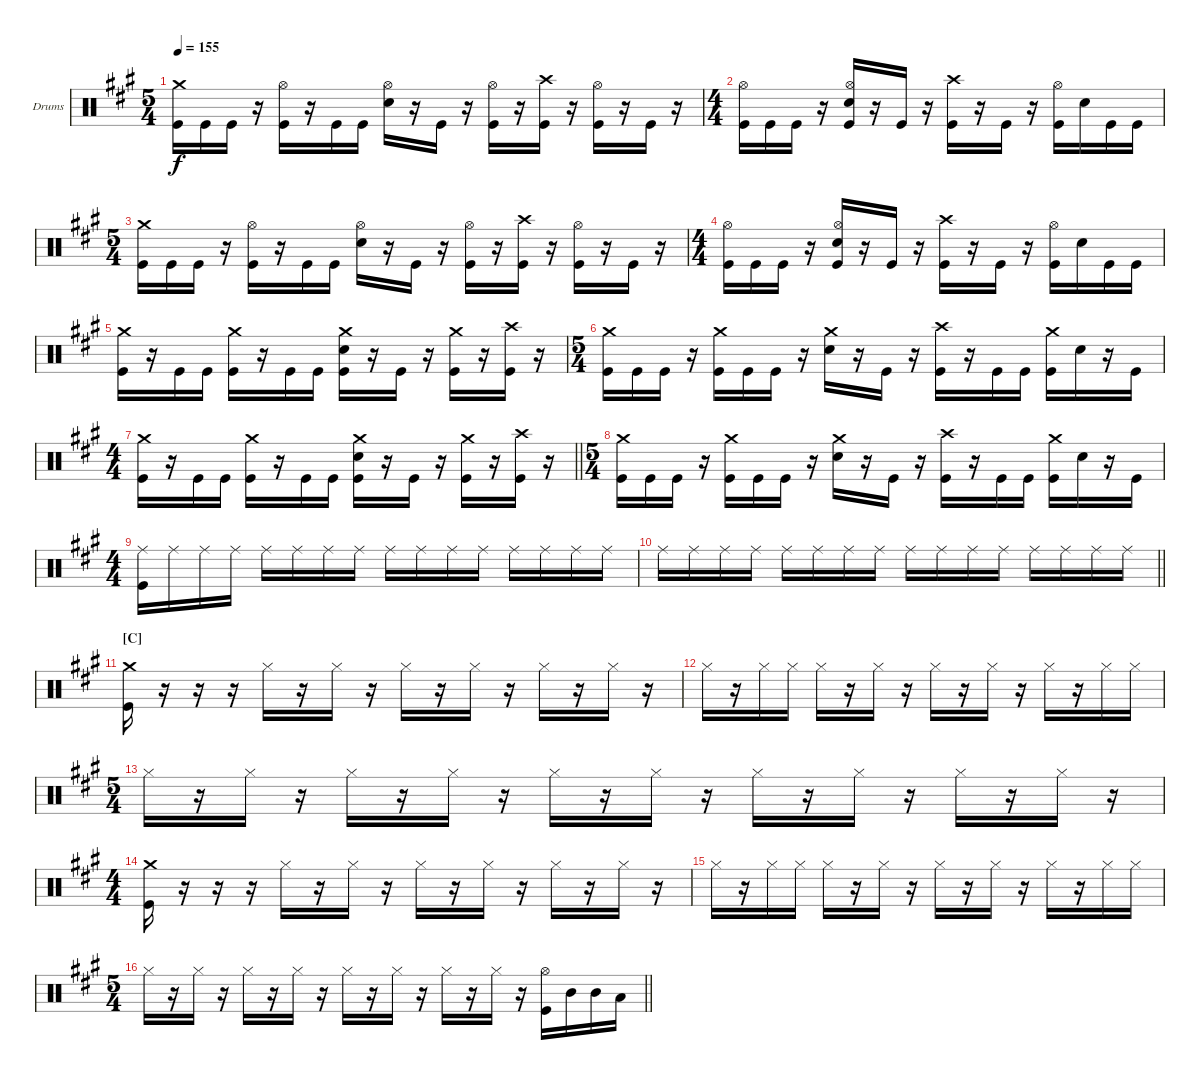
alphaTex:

\bracketExtendMode groupsimilarinstruments
\firstSystemTrackNameOrientation horizontal
\otherSystemsTrackNameOrientation horizontal
\track ("Drumkit" "Drums") {instrument percussion}
\staff {score}
\articulation defaults
\ts (5 4)
\beaming (8 2 2 2 2 2)
\tempo 155
\clef neutral
\ks a
("Crash medium (hit)" "Kick (hit)").16{dy f} "Kick (hit)".16 "Kick (hit)".16 r.16 ("Hi-Hat (open)" "Kick (hit)").16 r.16 "Kick (hit)".16 "Kick (hit)".16 ("Hi-Hat (open)" "Snare (hit) 2").16 r.16 "Kick (hit)".16 r.16 ("Hi-Hat (open)" "Kick (hit)").16 r.16 ("Crash high (hit)" "Kick (hit)").16 r.16 ("Hi-Hat (open)" "Kick (hit)").16 r.16 "Kick (hit)".16 r.16 |
\ts (4 4)
\beaming (8 2 2 2 2 2)
("Hi-Hat (open)" "Kick (hit)").16 "Kick (hit)".16 "Kick (hit)".16 r.16 ("Hi-Hat (open)" "Snare (hit) 2" "Kick (hit)").16 r.16 "Kick (hit)".16 r.16 ("Crash high (hit)" "Kick (hit)").16 r.16 "Kick (hit)".16 r.16 ("Hi-Hat (open)" "Kick (hit)").16 "Snare (hit) 2".16 "Kick (hit)".16 "Kick (hit)".16 |
\ts (5 4)
\beaming (8 2 2 2 2 2)
("Crash medium (hit)" "Kick (hit)").16 "Kick (hit)".16 "Kick (hit)".16 r.16 ("Hi-Hat (open)" "Kick (hit)").16 r.16 "Kick (hit)".16 "Kick (hit)".16 ("Hi-Hat (open)" "Snare (hit) 2").16 r.16 "Kick (hit)".16 r.16 ("Hi-Hat (open)" "Kick (hit)").16 r.16 ("Crash high (hit)" "Kick (hit)").16 r.16 ("Hi-Hat (open)" "Kick (hit)").16 r.16 "Kick (hit)".16 r.16 |
\ts (4 4)
\beaming (8 2 2 2 2 2)
("Hi-Hat (open)" "Kick (hit)").16 "Kick (hit)".16 "Kick (hit)".16 r.16 ("Hi-Hat (open)" "Snare (hit) 2" "Kick (hit)").16 r.16 "Kick (hit)".16 r.16 ("Crash high (hit)" "Kick (hit)").16 r.16 "Kick (hit)".16 r.16 ("Hi-Hat (open)" "Kick (hit)").16 "Snare (hit) 2".16 "Kick (hit)".16 "Kick (hit)".16 |
("Crash medium (hit)" "Kick (hit)").16 r.16 "Kick (hit)".16 "Kick (hit)".16 ("Crash medium (hit)" "Kick (hit)").16 r.16 "Kick (hit)".16 "Kick (hit)".16 ("Crash medium (hit)" "Snare (hit) 2" "Kick (hit)").16 r.16 "Kick (hit)".16 r.16 ("Crash medium (hit)" "Kick (hit)").16 r.16 ("Crash high (hit)" "Kick (hit)").16 r.16 |
\ts (5 4)
\beaming (8 2 2 2 2 2)
("Crash medium (hit)" "Kick (hit)").16 "Kick (hit)".16 "Kick (hit)".16 r.16 ("Crash medium (hit)" "Kick (hit)").16 "Kick (hit)".16 "Kick (hit)".16 r.16 ("Crash medium (hit)" "Snare (hit) 2").16 r.16 "Kick (hit)".16 r.16 ("Crash high (hit)" "Kick (hit)").16 r.16 "Kick (hit)".16 "Kick (hit)".16 ("Crash medium (hit)" "Kick (hit)").16 "Snare (hit) 2".16 r.16 "Kick (hit)".16 |
\ts (4 4)
\beaming (8 2 2 2 2 2)
\barLineRight lightlight
("Crash medium (hit)" "Kick (hit)").16 r.16 "Kick (hit)".16 "Kick (hit)".16 ("Crash medium (hit)" "Kick (hit)").16 r.16 "Kick (hit)".16 "Kick (hit)".16 ("Crash medium (hit)" "Snare (hit) 2" "Kick (hit)").16 r.16 "Kick (hit)".16 r.16 ("Crash medium (hit)" "Kick (hit)").16 r.16 ("Crash high (hit)" "Kick (hit)").16 r.16 |
\ts (5 4)
\beaming (8 2 2 2 2 2)
("Crash medium (hit)" "Kick (hit)").16 "Kick (hit)".16 "Kick (hit)".16 r.16 ("Crash medium (hit)" "Kick (hit)").16 "Kick (hit)".16 "Kick (hit)".16 r.16 ("Crash medium (hit)" "Snare (hit) 2").16 r.16 "Kick (hit)".16 r.16 ("Crash high (hit)" "Kick (hit)").16 r.16 "Kick (hit)".16 "Kick (hit)".16 ("Crash medium (hit)" "Kick (hit)").16 "Snare (hit) 2".16 r.16 "Kick (hit)".16 |
\ts (4 4)
\beaming (8 2 2 2 2 2)
("Ride (middle)" "Kick (hit)").16 "Ride (middle)".16 "Ride (middle)".16 "Ride (middle)".16 "Ride (middle)".16 "Ride (middle)".16 "Ride (middle)".16 "Ride (middle)".16 "Ride (middle)".16 "Ride (middle)".16 "Ride (middle)".16 "Ride (middle)".16 "Ride (middle)".16 "Ride (middle)".16 "Ride (middle)".16 "Ride (middle)".16 |
\barLineRight lightlight "Ride (middle)".16 "Ride (middle)".16 "Ride (middle)".16 "Ride (middle)".16 "Ride (middle)".16 "Ride (middle)".16 "Ride (middle)".16 "Ride (middle)".16 "Ride (middle)".16 "Ride (middle)".16 "Ride (middle)".16 "Ride (middle)".16 "Ride (middle)".16 "Ride (middle)".16 "Ride (middle)".16 "Ride (middle)".16
|
\section ("C" "")
("Crash medium (hit)" "Kick (hit)").16 r.16 r.16 r.16 "Hi-Hat (closed)".16 r.16 "Hi-Hat (closed)".16 r.16 "Hi-Hat (closed)".16 r.16 "Hi-Hat (closed)".16 r.16 "Hi-Hat (closed)".16 r.16 "Hi-Hat (closed)".16 r.16 |
"Hi-Hat (closed)".16 r.16 "Hi-Hat (closed)".16 "Hi-Hat (closed)".16 "Hi-Hat (closed)".16 r.16 "Hi-Hat (closed)".16 r.16 "Hi-Hat (closed)".16 r.16 "Hi-Hat (closed)".16 r.16 "Hi-Hat (closed)".16 r.16 "Hi-Hat (closed)".16 "Hi-Hat (closed)".16 |
\ts (5 4)
\beaming (8 2 2 2 2 2)
"Hi-Hat (closed)".16 r.16 "Hi-Hat (closed)".16 r.16 "Hi-Hat (closed)".16 r.16 "Hi-Hat (closed)".16 r.16 "Hi-Hat (closed)".16 r.16 "Hi-Hat (closed)".16 r.16 "Hi-Hat (closed)".16 r.16 "Hi-Hat (closed)".16 r.16 "Hi-Hat (closed)".16 r.16 "Hi-Hat (closed)".16 r.16 |
\ts (4 4)
\beaming (8 2 2 2 2 2)
("Crash medium (hit)" "Kick (hit)").16 r.16 r.16 r.16 "Hi-Hat (closed)".16 r.16 "Hi-Hat (closed)".16 r.16 "Hi-Hat (closed)".16 r.16 "Hi-Hat (closed)".16 r.16 "Hi-Hat (closed)".16 r.16 "Hi-Hat (closed)".16 r.16 |
"Hi-Hat (closed)".16 r.16 "Hi-Hat (closed)".16 "Hi-Hat (closed)".16 "Hi-Hat (closed)".16 r.16 "Hi-Hat (closed)".16 r.16 "Hi-Hat (closed)".16 r.16 "Hi-Hat (closed)".16 r.16 "Hi-Hat (closed)".16 r.16 "Hi-Hat (closed)".16 "Hi-Hat (closed)".16 |
\ts (5 4)
\beaming (8 2 2 2 2 2)
\barLineRight lightlight "Hi-Hat (closed)".16
r.16 "Hi-Hat (closed)".16 r.16 "Hi-Hat (closed)".16 r.16 "Hi-Hat (closed)".16 r.16 "Hi-Hat (closed)".16 r.16 "Hi-Hat (closed)".16 r.16 "Hi-Hat (closed)".16 r.16 "Hi-Hat (closed)".16 r.16 ("Hi-Hat (open)" "Kick (hit)").16 "Mid Tom (hit)".16 "Mid Tom (hit)".16 "Low Tom (hit)".16
